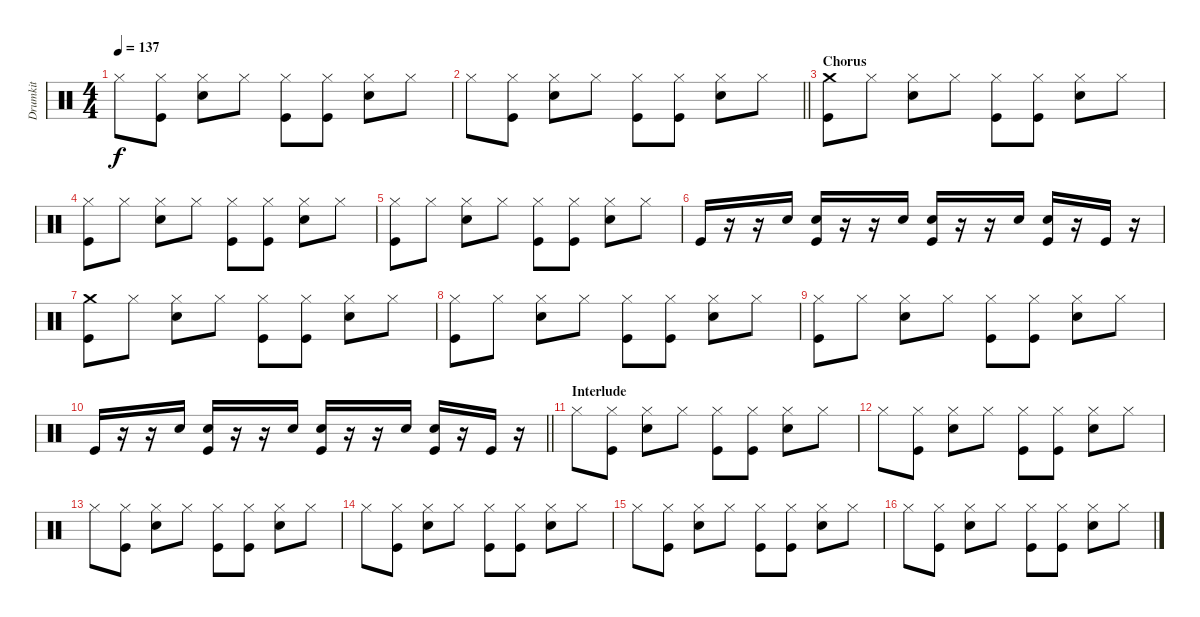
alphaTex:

\track ("Drumkit" "Drumkit") {instrument percussion}
\staff {score}
\articulation defaults
\ts (4 4)
\tempo 137
\clef neutral
\ks c "Hi-Hat (closed)".8{dy f}
("Hi-Hat (closed)" "Kick (hit)").8 ("Hi-Hat (closed)" "Snare (hit) 2").8 "Hi-Hat (closed)".8 ("Hi-Hat (closed)" "Kick (hit)").8 ("Hi-Hat (closed)" "Kick (hit)").8 ("Hi-Hat (closed)" "Snare (hit) 2").8 "Hi-Hat (closed)".8 |
\barLineRight lightlight "Hi-Hat (closed)".8
("Hi-Hat (closed)" "Kick (hit)").8 ("Hi-Hat (closed)" "Snare (hit) 2").8 "Hi-Hat (closed)".8 ("Hi-Hat (closed)" "Kick (hit)").8 ("Hi-Hat (closed)" "Kick (hit)").8 ("Hi-Hat (closed)" "Snare (hit) 2").8 "Hi-Hat (closed)".8 |
\section ("" "Chorus")
("Crash medium (hit)" "Kick (hit)").8 "Hi-Hat (closed)".8 ("Hi-Hat (closed)" "Snare (hit) 2").8 "Hi-Hat (closed)".8 ("Hi-Hat (closed)" "Kick (hit)").8 ("Hi-Hat (closed)" "Kick (hit)").8 ("Hi-Hat (closed)" "Snare (hit) 2").8 "Hi-Hat (closed)".8 |
("Hi-Hat (closed)" "Kick (hit)").8 "Hi-Hat (closed)".8 ("Hi-Hat (closed)" "Snare (hit) 2").8 "Hi-Hat (closed)".8 ("Hi-Hat (closed)" "Kick (hit)").8 ("Hi-Hat (closed)" "Kick (hit)").8 ("Hi-Hat (closed)" "Snare (hit) 2").8 "Hi-Hat (closed)".8 |
("Hi-Hat (closed)" "Kick (hit)").8 "Hi-Hat (closed)".8 ("Hi-Hat (closed)" "Snare (hit) 2").8 "Hi-Hat (closed)".8 ("Hi-Hat (closed)" "Kick (hit)").8 ("Hi-Hat (closed)" "Kick (hit)").8 ("Hi-Hat (closed)" "Snare (hit) 2").8 "Hi-Hat (closed)".8 |
"Kick (hit)".16 r.16 r.16 "Snare (hit) 2".16 ("Snare (hit) 2" "Kick (hit)").16 r.16 r.16 "Snare (hit) 2".16 ("Snare (hit) 2" "Kick (hit)").16 r.16 r.16 "Snare (hit) 2".16 ("Snare (hit) 2" "Kick (hit)").16 r.16 "Kick (hit)".16 r.16 |
("Crash medium (hit)" "Kick (hit)").8 "Hi-Hat (closed)".8 ("Hi-Hat (closed)" "Snare (hit) 2").8 "Hi-Hat (closed)".8 ("Hi-Hat (closed)" "Kick (hit)").8 ("Hi-Hat (closed)" "Kick (hit)").8 ("Hi-Hat (closed)" "Snare (hit) 2").8 "Hi-Hat (closed)".8 |
("Hi-Hat (closed)" "Kick (hit)").8 "Hi-Hat (closed)".8 ("Hi-Hat (closed)" "Snare (hit) 2").8 "Hi-Hat (closed)".8 ("Hi-Hat (closed)" "Kick (hit)").8 ("Hi-Hat (closed)" "Kick (hit)").8 ("Hi-Hat (closed)" "Snare (hit) 2").8 "Hi-Hat (closed)".8 |
("Hi-Hat (closed)" "Kick (hit)").8 "Hi-Hat (closed)".8 ("Hi-Hat (closed)" "Snare (hit) 2").8 "Hi-Hat (closed)".8 ("Hi-Hat (closed)" "Kick (hit)").8 ("Hi-Hat (closed)" "Kick (hit)").8 ("Hi-Hat (closed)" "Snare (hit) 2").8 "Hi-Hat (closed)".8 |
\barLineRight lightlight "Kick (hit)".16
r.16 r.16 "Snare (hit) 2".16 ("Snare (hit) 2" "Kick (hit)").16 r.16 r.16 "Snare (hit) 2".16 ("Snare (hit) 2" "Kick (hit)").16 r.16 r.16 "Snare (hit) 2".16 ("Snare (hit) 2" "Kick (hit)").16 r.16 "Kick (hit)".16 r.16 |
\section ("" "Interlude")
"Hi-Hat (closed)".8 ("Hi-Hat (closed)" "Kick (hit)").8 ("Hi-Hat (closed)" "Snare (hit) 2").8 "Hi-Hat (closed)".8 ("Hi-Hat (closed)" "Kick (hit)").8 ("Hi-Hat (closed)" "Kick (hit)").8 ("Hi-Hat (closed)" "Snare (hit) 2").8 "Hi-Hat (closed)".8 |
"Hi-Hat (closed)".8 ("Hi-Hat (closed)" "Kick (hit)").8 ("Hi-Hat (closed)" "Snare (hit) 2").8 "Hi-Hat (closed)".8 ("Hi-Hat (closed)" "Kick (hit)").8 ("Hi-Hat (closed)" "Kick (hit)").8 ("Hi-Hat (closed)" "Snare (hit) 2").8 "Hi-Hat (closed)".8 |
"Hi-Hat (closed)".8 ("Hi-Hat (closed)" "Kick (hit)").8 ("Hi-Hat (closed)" "Snare (hit) 2").8 "Hi-Hat (closed)".8 ("Hi-Hat (closed)" "Kick (hit)").8 ("Hi-Hat (closed)" "Kick (hit)").8 ("Hi-Hat (closed)" "Snare (hit) 2").8 "Hi-Hat (closed)".8 |
"Hi-Hat (closed)".8 ("Hi-Hat (closed)" "Kick (hit)").8 ("Hi-Hat (closed)" "Snare (hit) 2").8 "Hi-Hat (closed)".8 ("Hi-Hat (closed)" "Kick (hit)").8 ("Hi-Hat (closed)" "Kick (hit)").8 ("Hi-Hat (closed)" "Snare (hit) 2").8 "Hi-Hat (closed)".8 |
"Hi-Hat (closed)".8 ("Hi-Hat (closed)" "Kick (hit)").8 ("Hi-Hat (closed)" "Snare (hit) 2").8 "Hi-Hat (closed)".8 ("Hi-Hat (closed)" "Kick (hit)").8 ("Hi-Hat (closed)" "Kick (hit)").8 ("Hi-Hat (closed)" "Snare (hit) 2").8 "Hi-Hat (closed)".8 |
"Hi-Hat (closed)".8 ("Hi-Hat (closed)" "Kick (hit)").8 ("Hi-Hat (closed)" "Snare (hit) 2").8 "Hi-Hat (closed)".8 ("Hi-Hat (closed)" "Kick (hit)").8 ("Hi-Hat (closed)" "Kick (hit)").8 ("Hi-Hat (closed)" "Snare (hit) 2").8 "Hi-Hat (closed)".8
